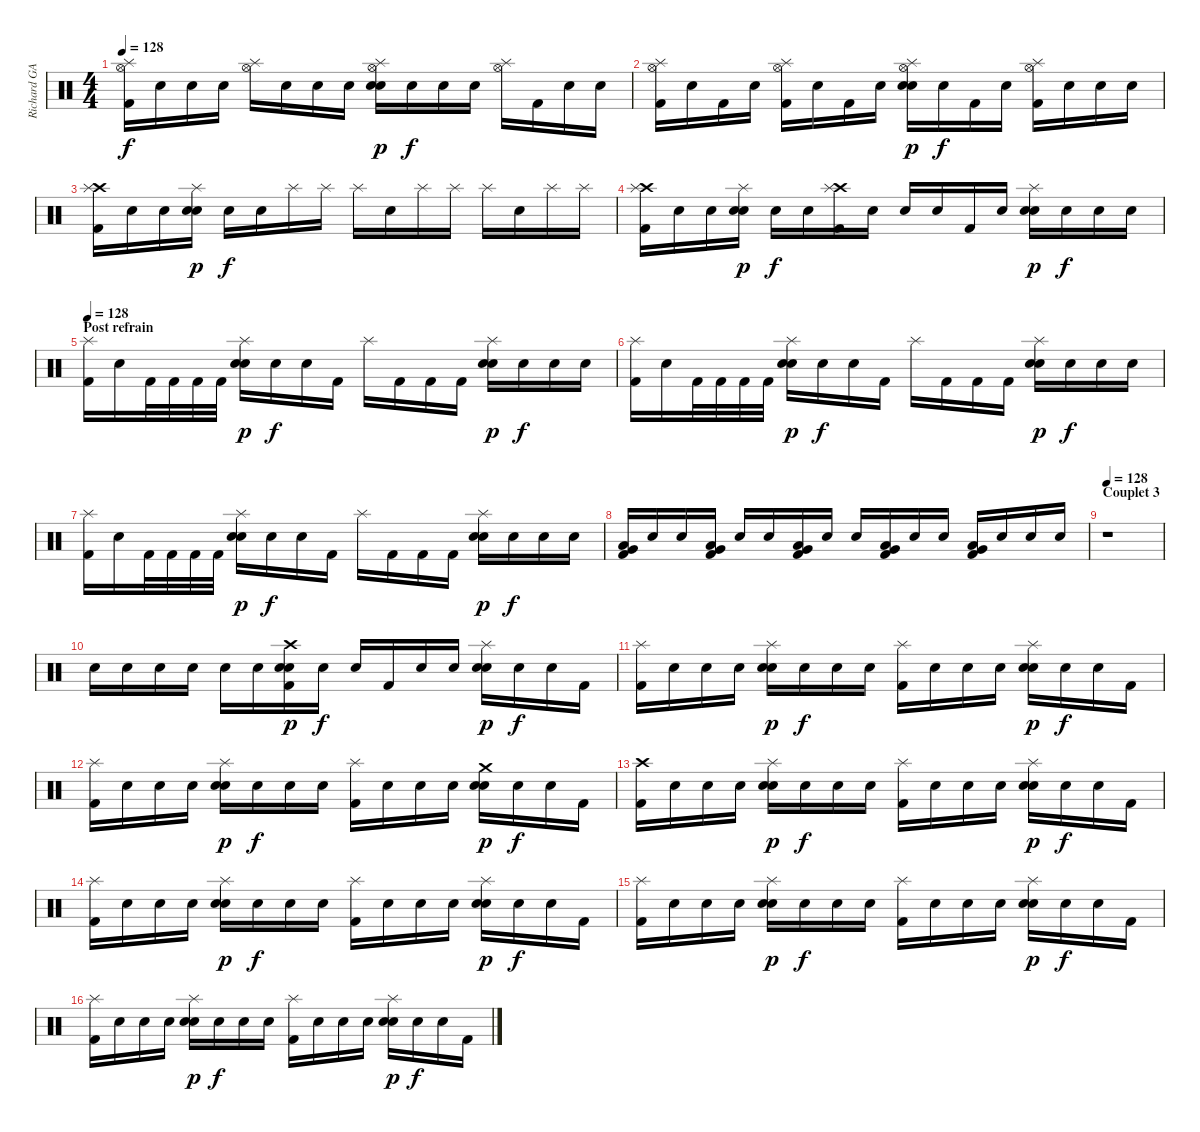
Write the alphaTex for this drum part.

\track ("Richard GAMBA - Batterie" "Richard GA") {instrument percussion}
\staff {score}
\articulation defaults
\ts (4 4)
\tempo 128
\clef neutral
\ks c
("Hi-Hat (open)" "Splash (hit)" "Kick (hit) 2").16{dy f} "Snare (hit)".16 "Snare (hit)".16 "Snare (hit)".16 ("Hi-Hat (open)" "Splash (hit)").16 "Snare (hit)".16 "Snare (hit)".16 "Snare (hit)".16 ("Hi-Hat (open)" "Splash (hit)" "Electric Snare (hit)" "Snare (hit) 2").16{dy p} "Snare (hit)".16{dy f} "Snare (hit)".16 "Snare (hit)".16 ("Hi-Hat (open)" "Splash (hit)").16 "Kick (hit) 2".16 "Snare (hit)".16 "Snare (hit)".16 |
("Hi-Hat (open)" "Splash (hit)" "Kick (hit) 2").16 "Snare (hit)".16 "Kick (hit) 2".16 "Snare (hit)".16 ("Hi-Hat (open)" "Splash (hit)" "Kick (hit) 2").16 "Snare (hit)".16 "Kick (hit) 2".16 "Snare (hit)".16 ("Hi-Hat (open)" "Splash (hit)" "Electric Snare (hit)" "Snare (hit) 2").16{dy p} "Snare (hit)".16{dy f} "Kick (hit) 2".16 "Snare (hit)".16 ("Hi-Hat (open)" "Splash (hit)" "Kick (hit) 2").16 "Snare (hit)".16 "Snare (hit)".16 "Snare (hit)".16 |
("Crash high (hit)" "Splash (hit)" "Kick (hit) 2").16 "Snare (hit)".16 "Snare (hit)".16 ("Splash (hit)" "Electric Snare (hit)" "Snare (hit) 2").16{dy p} "Snare (hit)".16{dy f} "Snare (hit)".16 "Splash (hit)".16 "Splash (hit)".16 "Splash (hit)".16 "Snare (hit)".16 "Splash (hit)".16 "Splash (hit)".16 "Splash (hit)".16 "Snare (hit)".16 "Splash (hit)".16 "Splash (hit)".16 |
("Crash high (hit)" "Splash (hit)" "Kick (hit) 2").16 "Snare (hit)".16 "Snare (hit)".16 ("Splash (hit)" "Electric Snare (hit)" "Snare (hit) 2").16{dy p} "Snare (hit)".16{dy f} "Snare (hit)".16 ("Crash high (hit)" "Splash (hit)" "Kick (hit) 2").16 "Snare (hit)".16 "Snare (hit)".16 "Snare (hit)".16 "Kick (hit) 2".16 "Snare (hit)".16 ("Splash (hit)" "Electric Snare (hit)" "Snare (hit) 2").16{dy p} "Snare (hit)".16{dy f} "Snare (hit)".16 "Snare (hit)".16 |
\section ("" "Post refrain")
\tempo 128
("Splash (hit)" "Kick (hit) 2").16{balance 8} "Snare (hit)".16 "Kick (hit) 2".32 "Kick (hit) 2".32 "Kick (hit) 2".32 "Kick (hit) 2".32 ("Splash (hit)" "Electric Snare (hit)" "Snare (hit) 2").16{dy p} "Snare (hit)".16{dy f} "Snare (hit)".16 "Kick (hit) 2".16 "Splash (hit)".16 "Kick (hit) 2".16 "Kick (hit) 2".16 "Kick (hit) 2".16 ("Splash (hit)" "Electric Snare (hit)" "Snare (hit) 2").16{dy p} "Snare (hit)".16{dy f} "Snare (hit)".16 "Snare (hit)".16 |
("Splash (hit)" "Kick (hit) 2").16 "Snare (hit)".16 "Kick (hit) 2".32 "Kick (hit) 2".32 "Kick (hit) 2".32 "Kick (hit) 2".32 ("Splash (hit)" "Electric Snare (hit)" "Snare (hit) 2").16{dy p} "Snare (hit)".16{dy f} "Snare (hit)".16 "Kick (hit) 2".16 "Splash (hit)".16 "Kick (hit) 2".16 "Kick (hit) 2".16 "Kick (hit) 2".16 ("Splash (hit)" "Electric Snare (hit)" "Snare (hit) 2").16{dy p} "Snare (hit)".16{dy f} "Snare (hit)".16 "Snare (hit)".16 |
("Splash (hit)" "Kick (hit) 2").16 "Snare (hit)".16 "Kick (hit) 2".32 "Kick (hit) 2".32 "Kick (hit) 2".32 "Kick (hit) 2".32 ("Splash (hit)" "Electric Snare (hit)" "Snare (hit) 2").16{dy p} "Snare (hit)".16{dy f} "Snare (hit)".16 "Kick (hit) 2".16 "Splash (hit)".16 "Kick (hit) 2".16 "Kick (hit) 2".16 "Kick (hit) 2".16 ("Splash (hit)" "Electric Snare (hit)" "Snare (hit) 2").16{dy p} "Snare (hit)".16{dy f} "Snare (hit)".16 "Snare (hit)".16 |
("Low Tom (hit)" "Very Low Tom (hit)" "Kick (hit) 2").16 "Snare (hit)".16 "Snare (hit)".16 ("Low Tom (hit)" "Very Low Tom (hit)" "Kick (hit) 2").16 "Snare (hit)".16 "Snare (hit)".16 ("Low Tom (hit)" "Very Low Tom (hit)" "Kick (hit) 2").16 "Snare (hit)".16 "Snare (hit)".16 ("Low Tom (hit)" "Very Low Tom (hit)" "Kick (hit) 2").16 "Snare (hit)".16 "Snare (hit)".16 ("Low Tom (hit)" "Very Low Tom (hit)" "Kick (hit) 2").16 "Snare (hit)".16 "Snare (hit)".16 "Snare (hit)".16 |
\section ("" "Couplet 3")
\tempo 128
r.1{volume 16 balance 8} |
"Snare (hit)".16 "Snare (hit)".16 "Snare (hit)".16 "Snare (hit)".16 "Snare (hit)".16 "Snare (hit)".16 ("Crash high (hit)" "Electric Snare (hit)" "Snare (hit) 2" "Kick (hit) 2").16{dy p} "Snare (hit)".16{dy f} "Snare (hit)".16 "Kick (hit) 2".16 "Snare (hit)".16 "Snare (hit)".16 ("Splash (hit)" "Electric Snare (hit)" "Snare (hit) 2").16{dy p} "Snare (hit)".16{dy f} "Snare (hit)".16 "Kick (hit) 2".16 |
("Splash (hit)" "Kick (hit) 2").16 "Snare (hit)".16 "Snare (hit)".16 "Snare (hit)".16 ("Splash (hit)" "Electric Snare (hit)" "Snare (hit) 2").16{dy p} "Snare (hit)".16{dy f} "Snare (hit)".16 "Snare (hit)".16 ("Splash (hit)" "Kick (hit) 2").16 "Snare (hit)".16 "Snare (hit)".16 "Snare (hit)".16 ("Splash (hit)" "Electric Snare (hit)" "Snare (hit) 2").16{dy p} "Snare (hit)".16{dy f} "Snare (hit)".16 "Kick (hit) 2".16 |
("Splash (hit)" "Kick (hit) 2").16 "Snare (hit)".16 "Snare (hit)".16 "Snare (hit)".16 ("Splash (hit)" "Electric Snare (hit)" "Snare (hit) 2").16{dy p} "Snare (hit)".16{dy f} "Snare (hit)".16 "Snare (hit)".16 ("Splash (hit)" "Kick (hit) 2").16 "Snare (hit)".16 "Snare (hit)".16 "Snare (hit)".16 ("Crash medium (hit)" "Electric Snare (hit)" "Snare (hit) 2").16{dy p} "Snare (hit)".16{dy f} "Snare (hit)".16 "Kick (hit) 2".16 |
("Crash high (hit)" "Kick (hit) 2").16 "Snare (hit)".16 "Snare (hit)".16 "Snare (hit)".16 ("Splash (hit)" "Electric Snare (hit)" "Snare (hit) 2").16{dy p} "Snare (hit)".16{dy f} "Snare (hit)".16 "Snare (hit)".16 ("Splash (hit)" "Kick (hit) 2").16 "Snare (hit)".16 "Snare (hit)".16 "Snare (hit)".16 ("Splash (hit)" "Electric Snare (hit)" "Snare (hit) 2").16{dy p} "Snare (hit)".16{dy f} "Snare (hit)".16 "Kick (hit) 2".16 |
("Splash (hit)" "Kick (hit) 2").16 "Snare (hit)".16 "Snare (hit)".16 "Snare (hit)".16 ("Splash (hit)" "Electric Snare (hit)" "Snare (hit) 2").16{dy p} "Snare (hit)".16{dy f} "Snare (hit)".16 "Snare (hit)".16 ("Splash (hit)" "Kick (hit) 2").16 "Snare (hit)".16 "Snare (hit)".16 "Snare (hit)".16 ("Splash (hit)" "Electric Snare (hit)" "Snare (hit) 2").16{dy p} "Snare (hit)".16{dy f} "Snare (hit)".16 "Kick (hit) 2".16 |
("Splash (hit)" "Kick (hit) 2").16 "Snare (hit)".16 "Snare (hit)".16 "Snare (hit)".16 ("Splash (hit)" "Electric Snare (hit)" "Snare (hit) 2").16{dy p} "Snare (hit)".16{dy f} "Snare (hit)".16 "Snare (hit)".16 ("Splash (hit)" "Kick (hit) 2").16 "Snare (hit)".16 "Snare (hit)".16 "Snare (hit)".16 ("Splash (hit)" "Electric Snare (hit)" "Snare (hit) 2").16{dy p} "Snare (hit)".16{dy f} "Snare (hit)".16 "Kick (hit) 2".16 |
("Splash (hit)" "Kick (hit) 2").16 "Snare (hit)".16 "Snare (hit)".16 "Snare (hit)".16 ("Splash (hit)" "Electric Snare (hit)" "Snare (hit) 2").16{dy p} "Snare (hit)".16{dy f} "Snare (hit)".16 "Snare (hit)".16 ("Splash (hit)" "Kick (hit) 2").16 "Snare (hit)".16 "Snare (hit)".16 "Snare (hit)".16 ("Splash (hit)" "Electric Snare (hit)" "Snare (hit) 2").16{dy p} "Snare (hit)".16{dy f} "Snare (hit)".16 "Kick (hit) 2".16
